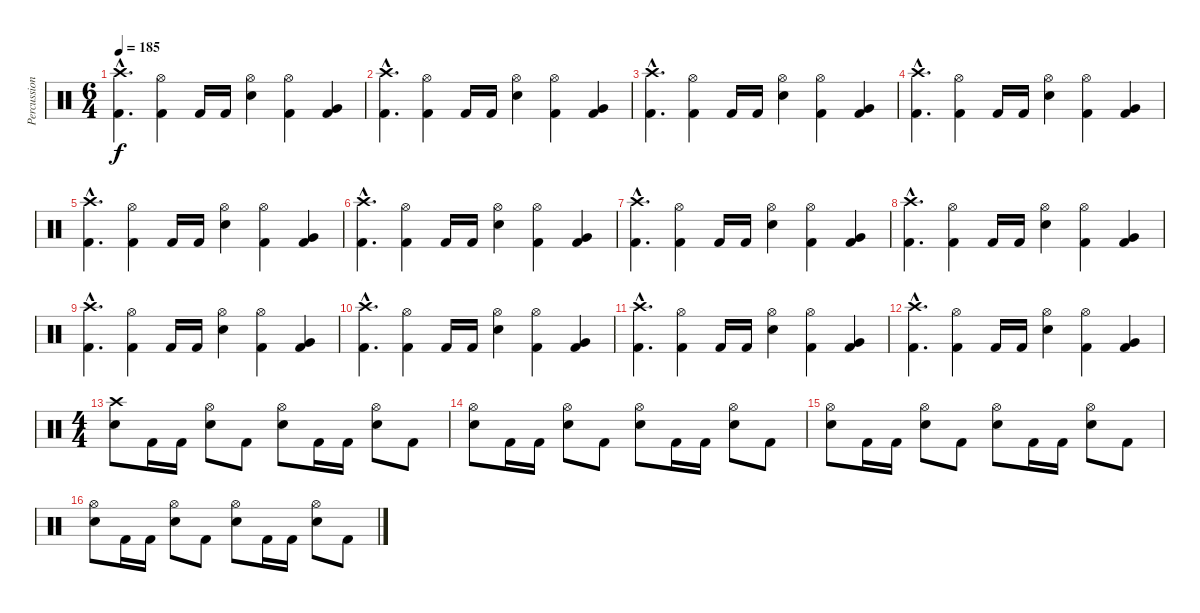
\track ("Percussion" "Percussion") {instrument percussion}
\staff {score}
\articulation defaults
\ts (6 4)
\tempo 185
\clef neutral
\ks c
("Crash high (hit)"{hac} "Kick (hit) 2"{hac}).4{d dy f} ("Hi-Hat (open)" "Kick (hit) 2").4 "Kick (hit) 2".16 "Kick (hit) 2".16 ("Hi-Hat (open)" "Electric Snare (hit)").4 ("Hi-Hat (open)" "Kick (hit) 2").4 ("Very Low Tom (hit)" "Kick (hit) 2").4 |
("Crash high (hit)"{hac} "Kick (hit) 2"{hac}).4{d} ("Hi-Hat (open)" "Kick (hit) 2").4 "Kick (hit) 2".16 "Kick (hit) 2".16 ("Hi-Hat (open)" "Electric Snare (hit)").4 ("Hi-Hat (open)" "Kick (hit) 2").4 ("Very Low Tom (hit)" "Kick (hit) 2").4 |
("Crash high (hit)"{hac} "Kick (hit) 2"{hac}).4{d} ("Hi-Hat (open)" "Kick (hit) 2").4 "Kick (hit) 2".16 "Kick (hit) 2".16 ("Hi-Hat (open)" "Electric Snare (hit)").4 ("Hi-Hat (open)" "Kick (hit) 2").4 ("Very Low Tom (hit)" "Kick (hit) 2").4 |
("Crash high (hit)"{hac} "Kick (hit) 2"{hac}).4{d} ("Hi-Hat (open)" "Kick (hit) 2").4 "Kick (hit) 2".16 "Kick (hit) 2".16 ("Hi-Hat (open)" "Electric Snare (hit)").4 ("Hi-Hat (open)" "Kick (hit) 2").4 ("Very Low Tom (hit)" "Kick (hit) 2").4 |
("Crash high (hit)"{hac} "Kick (hit) 2"{hac}).4{d} ("Hi-Hat (open)" "Kick (hit) 2").4 "Kick (hit) 2".16 "Kick (hit) 2".16 ("Hi-Hat (open)" "Electric Snare (hit)").4 ("Hi-Hat (open)" "Kick (hit) 2").4 ("Very Low Tom (hit)" "Kick (hit) 2").4 |
("Crash high (hit)"{hac} "Kick (hit) 2"{hac}).4{d} ("Hi-Hat (open)" "Kick (hit) 2").4 "Kick (hit) 2".16 "Kick (hit) 2".16 ("Hi-Hat (open)" "Electric Snare (hit)").4 ("Hi-Hat (open)" "Kick (hit) 2").4 ("Very Low Tom (hit)" "Kick (hit) 2").4 |
("Crash high (hit)"{hac} "Kick (hit) 2"{hac}).4{d} ("Hi-Hat (open)" "Kick (hit) 2").4 "Kick (hit) 2".16 "Kick (hit) 2".16 ("Hi-Hat (open)" "Electric Snare (hit)").4 ("Hi-Hat (open)" "Kick (hit) 2").4 ("Very Low Tom (hit)" "Kick (hit) 2").4 |
("Crash high (hit)"{hac} "Kick (hit) 2"{hac}).4{d} ("Hi-Hat (open)" "Kick (hit) 2").4 "Kick (hit) 2".16 "Kick (hit) 2".16 ("Hi-Hat (open)" "Electric Snare (hit)").4 ("Hi-Hat (open)" "Kick (hit) 2").4 ("Very Low Tom (hit)" "Kick (hit) 2").4 |
("Crash high (hit)"{hac} "Kick (hit) 2"{hac}).4{d} ("Hi-Hat (open)" "Kick (hit) 2").4 "Kick (hit) 2".16 "Kick (hit) 2".16 ("Hi-Hat (open)" "Electric Snare (hit)").4 ("Hi-Hat (open)" "Kick (hit) 2").4 ("Very Low Tom (hit)" "Kick (hit) 2").4 |
("Crash high (hit)"{hac} "Kick (hit) 2"{hac}).4{d} ("Hi-Hat (open)" "Kick (hit) 2").4 "Kick (hit) 2".16 "Kick (hit) 2".16 ("Hi-Hat (open)" "Electric Snare (hit)").4 ("Hi-Hat (open)" "Kick (hit) 2").4 ("Very Low Tom (hit)" "Kick (hit) 2").4 |
("Crash high (hit)"{hac} "Kick (hit) 2"{hac}).4{d} ("Hi-Hat (open)" "Kick (hit) 2").4 "Kick (hit) 2".16 "Kick (hit) 2".16 ("Hi-Hat (open)" "Electric Snare (hit)").4 ("Hi-Hat (open)" "Kick (hit) 2").4 ("Very Low Tom (hit)" "Kick (hit) 2").4 |
("Crash high (hit)"{hac} "Kick (hit) 2"{hac}).4{d} ("Hi-Hat (open)" "Kick (hit) 2").4 "Kick (hit) 2".16 "Kick (hit) 2".16 ("Hi-Hat (open)" "Electric Snare (hit)").4 ("Hi-Hat (open)" "Kick (hit) 2").4 ("Very Low Tom (hit)" "Kick (hit) 2").4 |
\ts (4 4)
("Crash high (hit)" "Electric Snare (hit)").8 "Kick (hit) 2".16 "Kick (hit) 2".16 ("Hi-Hat (open)" "Electric Snare (hit)").8 "Kick (hit) 2".8 ("Hi-Hat (open)" "Electric Snare (hit)").8 "Kick (hit) 2".16 "Kick (hit) 2".16 ("Hi-Hat (open)" "Electric Snare (hit)").8 "Kick (hit) 2".8 |
("Hi-Hat (open)" "Electric Snare (hit)").8 "Kick (hit) 2".16 "Kick (hit) 2".16 ("Hi-Hat (open)" "Electric Snare (hit)").8 "Kick (hit) 2".8 ("Hi-Hat (open)" "Electric Snare (hit)").8 "Kick (hit) 2".16 "Kick (hit) 2".16 ("Hi-Hat (open)" "Electric Snare (hit)").8 "Kick (hit) 2".8 |
("Hi-Hat (open)" "Electric Snare (hit)").8 "Kick (hit) 2".16 "Kick (hit) 2".16 ("Hi-Hat (open)" "Electric Snare (hit)").8 "Kick (hit) 2".8 ("Hi-Hat (open)" "Electric Snare (hit)").8 "Kick (hit) 2".16 "Kick (hit) 2".16 ("Hi-Hat (open)" "Electric Snare (hit)").8 "Kick (hit) 2".8 |
("Hi-Hat (open)" "Electric Snare (hit)").8 "Kick (hit) 2".16 "Kick (hit) 2".16 ("Hi-Hat (open)" "Electric Snare (hit)").8 "Kick (hit) 2".8 ("Hi-Hat (open)" "Electric Snare (hit)").8 "Kick (hit) 2".16 "Kick (hit) 2".16 ("Hi-Hat (open)" "Electric Snare (hit)").8 "Kick (hit) 2".8
